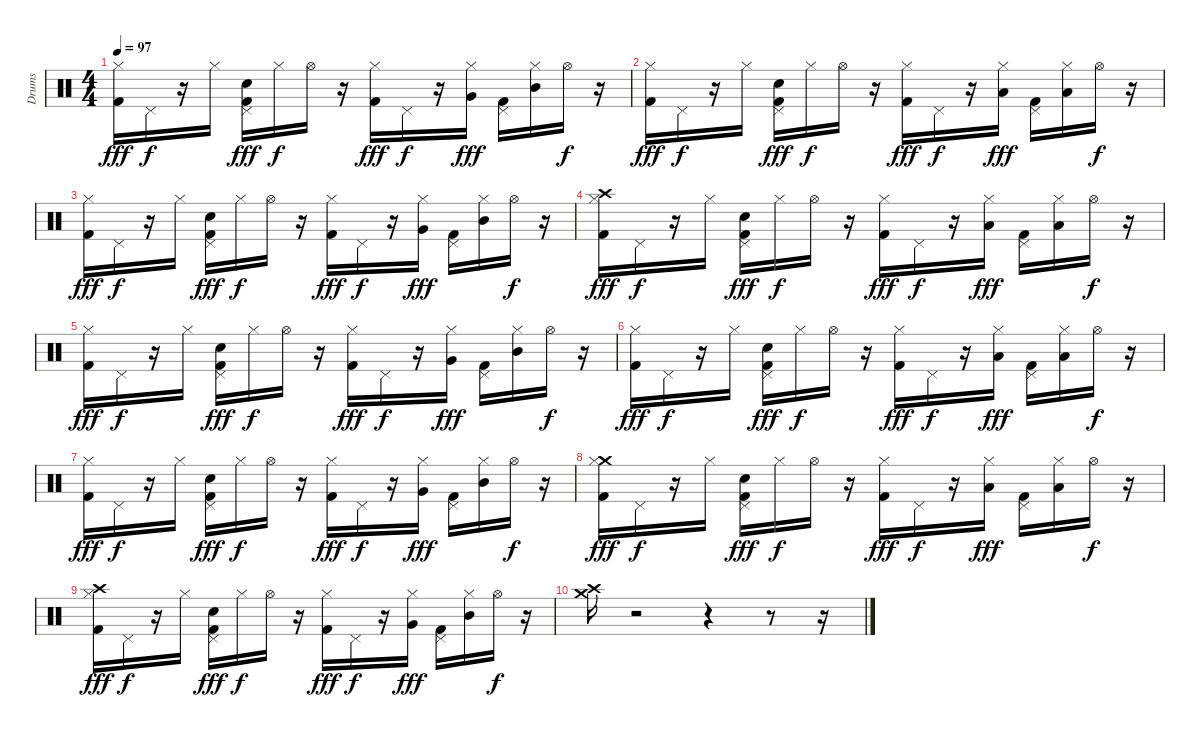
\track ("Drums" "Drums") {instrument percussion}
\staff {score}
\articulation defaults
\ts (4 4)
\tempo 97
\clef neutral
\ks c
("Hi-Hat (closed)" "Kick (hit) 2").16{dy fff} "Pedal Hi-Hat (hit)".16{dy f} r.16 "Hi-Hat (closed)".16 ("Electric Snare (hit)" "Pedal Hi-Hat (hit)" "Kick (hit) 2").16{dy fff} "Hi-Hat (closed)".16{dy f} "Hi-Hat (open)".16 r.16 ("Kick (hit) 2" "Hi-Hat (closed)").16{dy fff} "Pedal Hi-Hat (hit)".16{dy f} r.16 ("Hi-Hat (closed)" "Very Low Tom (hit)").16{dy fff} ("Kick (hit) 2" "Pedal Hi-Hat (hit)").16 ("Hi-Hat (closed)" "Mid Tom (hit)").16 "Hi-Hat (open)".16{dy f} r.16 |
("Kick (hit) 2" "Hi-Hat (closed)").16{dy fff} "Pedal Hi-Hat (hit)".16{dy f} r.16 "Hi-Hat (closed)".16 ("Snare (hit) 2" "Kick (hit) 2" "Pedal Hi-Hat (hit)").16{dy fff} "Hi-Hat (closed)".16{dy f} "Hi-Hat (open)".16 r.16 ("Hi-Hat (closed)" "Kick (hit) 2").16{dy fff} "Pedal Hi-Hat (hit)".16{dy f} r.16 ("Hi-Hat (closed)" "Low Tom (hit)").16{dy fff} ("Pedal Hi-Hat (hit)" "Kick (hit) 2").16 ("Hi-Hat (closed)" "Low Floor Tom (hit)").16 "Hi-Hat (open)".16{dy f} r.16 |
("Hi-Hat (closed)" "Kick (hit) 2").16{dy fff} "Pedal Hi-Hat (hit)".16{dy f} r.16 "Hi-Hat (closed)".16 ("Electric Snare (hit)" "Pedal Hi-Hat (hit)" "Kick (hit) 2").16{dy fff} "Hi-Hat (closed)".16{dy f} "Hi-Hat (open)".16 r.16 ("Kick (hit) 2" "Hi-Hat (closed)").16{dy fff} "Pedal Hi-Hat (hit)".16{dy f} r.16 ("Hi-Hat (closed)" "Very Low Tom (hit)").16{dy fff} ("Kick (hit) 2" "Pedal Hi-Hat (hit)").16 ("Hi-Hat (closed)" "Mid Tom (hit)").16 "Hi-Hat (open)".16{dy f} r.16 |
("Crash high (hit)" "Kick (hit) 2" "Hi-Hat (closed)").16{dy fff} "Pedal Hi-Hat (hit)".16{dy f} r.16 "Hi-Hat (closed)".16 ("Snare (hit) 2" "Kick (hit) 2" "Pedal Hi-Hat (hit)").16{dy fff} "Hi-Hat (closed)".16{dy f} "Hi-Hat (open)".16 r.16 ("Hi-Hat (closed)" "Kick (hit) 2").16{dy fff} "Pedal Hi-Hat (hit)".16{dy f} r.16 ("Hi-Hat (closed)" "Low Tom (hit)").16{dy fff} ("Pedal Hi-Hat (hit)" "Kick (hit) 2").16 ("Hi-Hat (closed)" "Low Floor Tom (hit)").16 "Hi-Hat (open)".16{dy f} r.16 |
("Hi-Hat (closed)" "Kick (hit) 2").16{dy fff} "Pedal Hi-Hat (hit)".16{dy f} r.16 "Hi-Hat (closed)".16 ("Electric Snare (hit)" "Pedal Hi-Hat (hit)" "Kick (hit) 2").16{dy fff} "Hi-Hat (closed)".16{dy f} "Hi-Hat (open)".16 r.16 ("Kick (hit) 2" "Hi-Hat (closed)").16{dy fff} "Pedal Hi-Hat (hit)".16{dy f} r.16 ("Hi-Hat (closed)" "Very Low Tom (hit)").16{dy fff} ("Kick (hit) 2" "Pedal Hi-Hat (hit)").16 ("Hi-Hat (closed)" "Mid Tom (hit)").16 "Hi-Hat (open)".16{dy f} r.16 |
("Kick (hit) 2" "Hi-Hat (closed)").16{dy fff} "Pedal Hi-Hat (hit)".16{dy f} r.16 "Hi-Hat (closed)".16 ("Snare (hit) 2" "Kick (hit) 2" "Pedal Hi-Hat (hit)").16{dy fff} "Hi-Hat (closed)".16{dy f} "Hi-Hat (open)".16 r.16 ("Hi-Hat (closed)" "Kick (hit) 2").16{dy fff} "Pedal Hi-Hat (hit)".16{dy f} r.16 ("Hi-Hat (closed)" "Low Tom (hit)").16{dy fff} ("Pedal Hi-Hat (hit)" "Kick (hit) 2").16 ("Hi-Hat (closed)" "Low Floor Tom (hit)").16 "Hi-Hat (open)".16{dy f} r.16 |
("Hi-Hat (closed)" "Kick (hit) 2").16{dy fff} "Pedal Hi-Hat (hit)".16{dy f} r.16 "Hi-Hat (closed)".16 ("Electric Snare (hit)" "Pedal Hi-Hat (hit)" "Kick (hit) 2").16{dy fff} "Hi-Hat (closed)".16{dy f} "Hi-Hat (open)".16 r.16 ("Kick (hit) 2" "Hi-Hat (closed)").16{dy fff} "Pedal Hi-Hat (hit)".16{dy f} r.16 ("Hi-Hat (closed)" "Very Low Tom (hit)").16{dy fff} ("Kick (hit) 2" "Pedal Hi-Hat (hit)").16 ("Hi-Hat (closed)" "Mid Tom (hit)").16 "Hi-Hat (open)".16{dy f} r.16 |
("Crash medium (hit)" "Kick (hit) 2" "Hi-Hat (closed)").16{dy fff} "Pedal Hi-Hat (hit)".16{dy f} r.16 "Hi-Hat (closed)".16 ("Snare (hit) 2" "Kick (hit) 2" "Pedal Hi-Hat (hit)").16{dy fff} "Hi-Hat (closed)".16{dy f} "Hi-Hat (open)".16 r.16 ("Kick (hit) 2" "Hi-Hat (closed)").16{dy fff} "Pedal Hi-Hat (hit)".16{dy f} r.16 ("Low Tom (hit)" "Hi-Hat (closed)").16{dy fff} ("Kick (hit) 2" "Pedal Hi-Hat (hit)").16 ("Hi-Hat (closed)" "Low Floor Tom (hit)").16 "Hi-Hat (open)".16{dy f} r.16 |
("Crash high (hit)" "Hi-Hat (closed)" "Kick (hit) 2").16{dy fff} "Pedal Hi-Hat (hit)".16{dy f} r.16 "Hi-Hat (closed)".16 ("Electric Snare (hit)" "Pedal Hi-Hat (hit)" "Kick (hit) 2").16{dy fff} "Hi-Hat (closed)".16{dy f} "Hi-Hat (open)".16 r.16 ("Kick (hit) 2" "Hi-Hat (closed)").16{dy fff} "Pedal Hi-Hat (hit)".16{dy f} r.16 ("Hi-Hat (closed)" "Very Low Tom (hit)").16{dy fff} ("Pedal Hi-Hat (hit)" "Kick (hit) 2").16 ("Mid Tom (hit)" "Hi-Hat (closed)").16 "Hi-Hat (open)".16{dy f} r.16 |
("Crash medium (hit)" "Crash high (hit)").16 r.2 r.4 r.8 r.16
